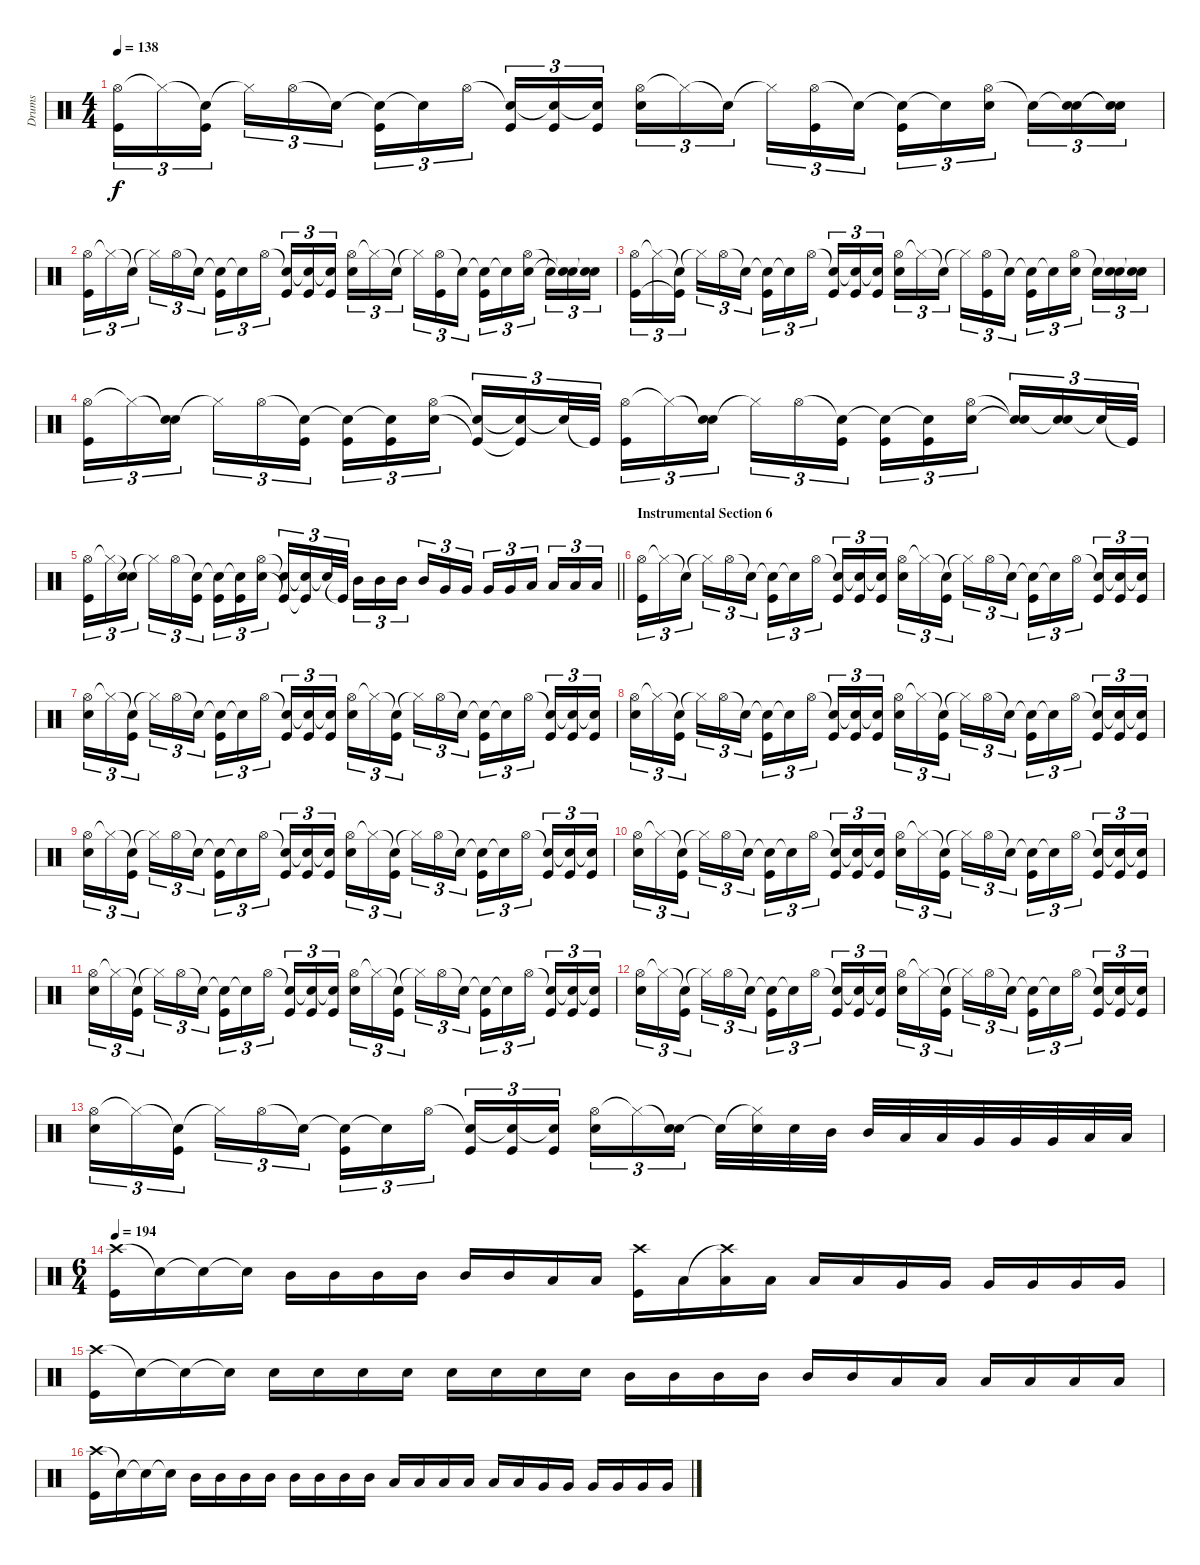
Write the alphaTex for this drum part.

\track ("Drums" "Drums") {instrument percussion}
\staff {score}
\articulation defaults
\ts (4 4)
\tempo 138
\clef neutral
\ks c
("Hi-Hat (open)" "Kick (hit)").16{tu (3 2) dy f} "Hi-Hat (closed)"{t}.16{tu (3 2)} ("Snare (hit)"{t} "Kick (hit)").16{tu (3 2)} "Hi-Hat (closed)"{t}.16{tu (3 2)} "Hi-Hat (open)".16{tu (3 2)} "Snare (hit)"{t}.16{tu (3 2)} ("Snare (hit)"{t} "Kick (hit)").16{tu (3 2)} "Snare (hit)"{t}.16{tu (3 2)} "Hi-Hat (open)".16{tu (3 2)} ("Snare (hit)"{t} "Kick (hit)").16{tu (3 2)} ("Snare (hit)"{t} "Kick (hit)").16{tu (3 2)} ("Snare (hit)"{t} "Kick (hit)").16{tu (3 2)} ("Hi-Hat (open)" "Electric Snare (hit)").16{tu (3 2)} "Hi-Hat (closed)"{t}.16{tu (3 2)} "Snare (hit)"{t}.16{tu (3 2)} "Hi-Hat (closed)"{t}.16{tu (3 2)} ("Hi-Hat (open)" "Kick (hit)").16{tu (3 2)} "Snare (hit)"{t}.16{tu (3 2)} ("Snare (hit)"{t} "Kick (hit)").16{tu (3 2)} "Snare (hit)"{t}.16{tu (3 2)} ("Hi-Hat (open)" "Electric Snare (hit)").16{tu (3 2)} "Snare (hit)"{t}.16{tu (3 2)} ("Snare (hit)"{t} "Electric Snare (hit)").16{tu (3 2)} ("Snare (hit)"{t} "Electric Snare (hit)"{t}).16{tu (3 2)} |
("Hi-Hat (open)" "Kick (hit)").16{tu (3 2)} "Hi-Hat (closed)"{t}.16{tu (3 2)} "Snare (hit)"{t}.16{tu (3 2)} "Hi-Hat (closed)"{t}.16{tu (3 2)} "Hi-Hat (open)".16{tu (3 2)} "Snare (hit)"{t}.16{tu (3 2)} ("Snare (hit)"{t} "Kick (hit)").16{tu (3 2)} "Snare (hit)"{t}.16{tu (3 2)} "Hi-Hat (open)".16{tu (3 2)} ("Snare (hit)"{t} "Kick (hit)").16{tu (3 2)} ("Snare (hit)"{t} "Kick (hit)").16{tu (3 2)} ("Snare (hit)"{t} "Kick (hit)").16{tu (3 2)} ("Hi-Hat (open)" "Electric Snare (hit)").16{tu (3 2)} "Hi-Hat (closed)"{t}.16{tu (3 2)} "Snare (hit)"{t}.16{tu (3 2)} "Hi-Hat (closed)"{t}.16{tu (3 2)} ("Hi-Hat (open)" "Kick (hit)").16{tu (3 2)} "Snare (hit)"{t}.16{tu (3 2)} ("Snare (hit)"{t} "Kick (hit)").16{tu (3 2)} "Snare (hit)"{t}.16{tu (3 2)} ("Hi-Hat (open)" "Electric Snare (hit)").16{tu (3 2)} "Snare (hit)"{t}.16{tu (3 2)} ("Snare (hit)"{t} "Electric Snare (hit)"{t}).16{tu (3 2)} ("Snare (hit)"{t} "Electric Snare (hit)"{t}).16{tu (3 2)} |
("Hi-Hat (open)" "Kick (hit)").16{tu (3 2)} "Hi-Hat (closed)"{t}.16{tu (3 2)} ("Snare (hit)"{t} "Kick (hit)"{t}).16{tu (3 2)} "Hi-Hat (closed)"{t}.16{tu (3 2)} "Hi-Hat (open)".16{tu (3 2)} "Snare (hit)"{t}.16{tu (3 2)} ("Snare (hit)"{t} "Kick (hit)").16{tu (3 2)} "Snare (hit)"{t}.16{tu (3 2)} "Hi-Hat (open)".16{tu (3 2)} ("Snare (hit)"{t} "Kick (hit)").16{tu (3 2)} ("Snare (hit)"{t} "Kick (hit)").16{tu (3 2)} ("Snare (hit)"{t} "Kick (hit)").16{tu (3 2)} ("Hi-Hat (open)" "Electric Snare (hit)").16{tu (3 2)} "Hi-Hat (closed)"{t}.16{tu (3 2)} "Snare (hit)"{t}.16{tu (3 2)} "Hi-Hat (closed)"{t}.16{tu (3 2)} ("Hi-Hat (open)" "Kick (hit)").16{tu (3 2)} "Snare (hit)"{t}.16{tu (3 2)} ("Snare (hit)"{t} "Kick (hit)").16{tu (3 2)} "Snare (hit)"{t}.16{tu (3 2)} ("Hi-Hat (open)" "Electric Snare (hit)").16{tu (3 2)} "Snare (hit)"{t}.16{tu (3 2)} ("Snare (hit)"{t} "Electric Snare (hit)").16{tu (3 2)} ("Snare (hit)"{t} "Electric Snare (hit)"{t}).16{tu (3 2)} |
("Hi-Hat (open)" "Kick (hit)").16{tu (3 2)} "Hi-Hat (closed)"{t}.16{tu (3 2)} ("Snare (hit)"{t} "Electric Snare (hit)").16{tu (3 2)} "Hi-Hat (closed)"{t}.16{tu (3 2)} "Hi-Hat (open)".16{tu (3 2)} ("Snare (hit)"{t} "Kick (hit)").16{tu (3 2)} ("Snare (hit)"{t} "Kick (hit)").16{tu (3 2)} ("Snare (hit)"{t} "Kick (hit)").16{tu (3 2)} ("Hi-Hat (open)" "Electric Snare (hit)").16{tu (3 2)} ("Snare (hit)"{t} "Kick (hit)"{t}).16{tu (3 2)} ("Snare (hit)"{t} "Kick (hit)"{t}).16{tu (3 2)} "Snare (hit)"{t}.32{tu (3 2)} "Kick (hit)"{t}.32{tu (3 2)} ("Hi-Hat (open)" "Kick (hit)").16{tu (3 2)} "Hi-Hat (closed)"{t}.16{tu (3 2)} ("Snare (hit)"{t} "Electric Snare (hit)").16{tu (3 2)} "Hi-Hat (closed)"{t}.16{tu (3 2)} "Hi-Hat (open)".16{tu (3 2)} ("Snare (hit)"{t} "Kick (hit)").16{tu (3 2)} ("Snare (hit)"{t} "Kick (hit)").16{tu (3 2)} ("Snare (hit)"{t} "Kick (hit)").16{tu (3 2)} ("Hi-Hat (open)" "Electric Snare (hit)").16{tu (3 2)} ("Snare (hit)"{t} "Electric Snare (hit)"{t}).16{tu (3 2)} ("Snare (hit)"{t} "Electric Snare (hit)").16{tu (3 2)} "Snare (hit)"{t}.32{tu (3 2)} "Kick (hit)"{t}.32{tu (3 2)} |
\barLineRight lightlight
("Hi-Hat (open)" "Kick (hit)").16{tu (3 2)} "Hi-Hat (closed)"{t}.16{tu (3 2)} ("Snare (hit)"{t} "Electric Snare (hit)").16{tu (3 2)} "Hi-Hat (closed)"{t}.16{tu (3 2)} "Hi-Hat (open)".16{tu (3 2)} ("Snare (hit)"{t} "Kick (hit)").16{tu (3 2)} ("Snare (hit)"{t} "Kick (hit)").16{tu (3 2)} ("Snare (hit)"{t} "Kick (hit)").16{tu (3 2)} ("Hi-Hat (open)" "Electric Snare (hit)").16{tu (3 2)} ("Snare (hit)"{t} "Kick (hit)"{t}).16{tu (3 2)} ("Snare (hit)"{t} "Kick (hit)"{t}).16{tu (3 2)} "Snare (hit)"{t}.32{tu (3 2)} "Kick (hit)"{t}.32{tu (3 2)} "Mid Tom (hit)".16{tu (3 2)} "Mid Tom (hit)".16{tu (3 2)} "Mid Tom (hit)".16{tu (3 2)} "Mid Tom (hit)".16{tu (3 2)} "Very Low Tom (hit)".16{tu (3 2)} "Very Low Tom (hit)".16{tu (3 2)} "Very Low Tom (hit)".16{tu (3 2)} "Very Low Tom (hit)".16{tu (3 2)} "Low Floor Tom (hit)".16{tu (3 2)} "Low Floor Tom (hit)".16{tu (3 2)} "Low Floor Tom (hit)".16{tu (3 2)} "Low Floor Tom (hit)".16{tu (3 2)} |
\section ("" "Instrumental Section 6")
("Hi-Hat (open)" "Kick (hit)").16{tu (3 2)} "Hi-Hat (closed)"{t}.16{tu (3 2)} "Snare (hit)"{t}.16{tu (3 2)} "Hi-Hat (closed)"{t}.16{tu (3 2)} "Hi-Hat (open)".16{tu (3 2)} "Snare (hit)"{t}.16{tu (3 2)} ("Snare (hit)"{t} "Kick (hit)").16{tu (3 2)} "Snare (hit)"{t}.16{tu (3 2)} "Hi-Hat (open)".16{tu (3 2)} ("Snare (hit)"{t} "Kick (hit)").16{tu (3 2)} ("Snare (hit)"{t} "Kick (hit)").16{tu (3 2)} ("Snare (hit)"{t} "Kick (hit)").16{tu (3 2)} ("Hi-Hat (open)" "Electric Snare (hit)").16{tu (3 2)} "Hi-Hat (closed)"{t}.16{tu (3 2)} ("Snare (hit)"{t} "Kick (hit)").16{tu (3 2)} "Hi-Hat (closed)"{t}.16{tu (3 2)} "Hi-Hat (open)".16{tu (3 2)} "Snare (hit)"{t}.16{tu (3 2)} ("Snare (hit)"{t} "Kick (hit)").16{tu (3 2)} "Snare (hit)"{t}.16{tu (3 2)} "Hi-Hat (open)".16{tu (3 2)} ("Snare (hit)"{t} "Kick (hit)").16{tu (3 2)} ("Snare (hit)"{t} "Kick (hit)").16{tu (3 2)} ("Snare (hit)"{t} "Kick (hit)").16{tu (3 2)} |
("Hi-Hat (open)" "Electric Snare (hit)").16{tu (3 2)} "Hi-Hat (closed)"{t}.16{tu (3 2)} ("Snare (hit)"{t} "Kick (hit)").16{tu (3 2)} "Hi-Hat (closed)"{t}.16{tu (3 2)} "Hi-Hat (open)".16{tu (3 2)} "Snare (hit)"{t}.16{tu (3 2)} ("Snare (hit)"{t} "Kick (hit)").16{tu (3 2)} "Snare (hit)"{t}.16{tu (3 2)} "Hi-Hat (open)".16{tu (3 2)} ("Snare (hit)"{t} "Kick (hit)").16{tu (3 2)} ("Snare (hit)"{t} "Kick (hit)").16{tu (3 2)} ("Snare (hit)"{t} "Kick (hit)").16{tu (3 2)} ("Hi-Hat (open)" "Electric Snare (hit)").16{tu (3 2)} "Hi-Hat (closed)"{t}.16{tu (3 2)} ("Snare (hit)"{t} "Kick (hit)").16{tu (3 2)} "Hi-Hat (closed)"{t}.16{tu (3 2)} "Hi-Hat (open)".16{tu (3 2)} "Snare (hit)"{t}.16{tu (3 2)} ("Snare (hit)"{t} "Kick (hit)").16{tu (3 2)} "Snare (hit)"{t}.16{tu (3 2)} "Hi-Hat (open)".16{tu (3 2)} ("Snare (hit)"{t} "Kick (hit)").16{tu (3 2)} ("Snare (hit)"{t} "Kick (hit)").16{tu (3 2)} ("Snare (hit)"{t} "Kick (hit)").16{tu (3 2)} |
("Hi-Hat (open)" "Electric Snare (hit)").16{tu (3 2)} "Hi-Hat (closed)"{t}.16{tu (3 2)} ("Snare (hit)"{t} "Kick (hit)").16{tu (3 2)} "Hi-Hat (closed)"{t}.16{tu (3 2)} "Hi-Hat (open)".16{tu (3 2)} "Snare (hit)"{t}.16{tu (3 2)} ("Snare (hit)"{t} "Kick (hit)").16{tu (3 2)} "Snare (hit)"{t}.16{tu (3 2)} "Hi-Hat (open)".16{tu (3 2)} ("Snare (hit)"{t} "Kick (hit)").16{tu (3 2)} ("Snare (hit)"{t} "Kick (hit)").16{tu (3 2)} ("Snare (hit)"{t} "Kick (hit)").16{tu (3 2)} ("Hi-Hat (open)" "Electric Snare (hit)").16{tu (3 2)} "Hi-Hat (closed)"{t}.16{tu (3 2)} ("Snare (hit)"{t} "Kick (hit)").16{tu (3 2)} "Hi-Hat (closed)"{t}.16{tu (3 2)} "Hi-Hat (open)".16{tu (3 2)} "Snare (hit)"{t}.16{tu (3 2)} ("Snare (hit)"{t} "Kick (hit)").16{tu (3 2)} "Snare (hit)"{t}.16{tu (3 2)} "Hi-Hat (open)".16{tu (3 2)} ("Snare (hit)"{t} "Kick (hit)").16{tu (3 2)} ("Snare (hit)"{t} "Kick (hit)").16{tu (3 2)} ("Snare (hit)"{t} "Kick (hit)").16{tu (3 2)} |
("Hi-Hat (open)" "Electric Snare (hit)").16{tu (3 2)} "Hi-Hat (closed)"{t}.16{tu (3 2)} ("Snare (hit)"{t} "Kick (hit)").16{tu (3 2)} "Hi-Hat (closed)"{t}.16{tu (3 2)} "Hi-Hat (open)".16{tu (3 2)} "Snare (hit)"{t}.16{tu (3 2)} ("Snare (hit)"{t} "Kick (hit)").16{tu (3 2)} "Snare (hit)"{t}.16{tu (3 2)} "Hi-Hat (open)".16{tu (3 2)} ("Snare (hit)"{t} "Kick (hit)").16{tu (3 2)} ("Snare (hit)"{t} "Kick (hit)").16{tu (3 2)} ("Snare (hit)"{t} "Kick (hit)").16{tu (3 2)} ("Hi-Hat (open)" "Electric Snare (hit)").16{tu (3 2)} "Hi-Hat (closed)"{t}.16{tu (3 2)} ("Snare (hit)"{t} "Kick (hit)").16{tu (3 2)} "Hi-Hat (closed)"{t}.16{tu (3 2)} "Hi-Hat (open)".16{tu (3 2)} "Snare (hit)"{t}.16{tu (3 2)} ("Snare (hit)"{t} "Kick (hit)").16{tu (3 2)} "Snare (hit)"{t}.16{tu (3 2)} "Hi-Hat (open)".16{tu (3 2)} ("Snare (hit)"{t} "Kick (hit)").16{tu (3 2)} ("Snare (hit)"{t} "Kick (hit)").16{tu (3 2)} ("Snare (hit)"{t} "Kick (hit)").16{tu (3 2)} |
("Hi-Hat (open)" "Electric Snare (hit)").16{tu (3 2)} "Hi-Hat (closed)"{t}.16{tu (3 2)} ("Snare (hit)"{t} "Kick (hit)").16{tu (3 2)} "Hi-Hat (closed)"{t}.16{tu (3 2)} "Hi-Hat (open)".16{tu (3 2)} "Snare (hit)"{t}.16{tu (3 2)} ("Snare (hit)"{t} "Kick (hit)").16{tu (3 2)} "Snare (hit)"{t}.16{tu (3 2)} "Hi-Hat (open)".16{tu (3 2)} ("Snare (hit)"{t} "Kick (hit)").16{tu (3 2)} ("Snare (hit)"{t} "Kick (hit)").16{tu (3 2)} ("Snare (hit)"{t} "Kick (hit)").16{tu (3 2)} ("Hi-Hat (open)" "Electric Snare (hit)").16{tu (3 2)} "Hi-Hat (closed)"{t}.16{tu (3 2)} ("Snare (hit)"{t} "Kick (hit)").16{tu (3 2)} "Hi-Hat (closed)"{t}.16{tu (3 2)} "Hi-Hat (open)".16{tu (3 2)} "Snare (hit)"{t}.16{tu (3 2)} ("Snare (hit)"{t} "Kick (hit)").16{tu (3 2)} "Snare (hit)"{t}.16{tu (3 2)} "Hi-Hat (open)".16{tu (3 2)} ("Snare (hit)"{t} "Kick (hit)").16{tu (3 2)} ("Snare (hit)"{t} "Kick (hit)").16{tu (3 2)} ("Snare (hit)"{t} "Kick (hit)").16{tu (3 2)} |
("Hi-Hat (open)" "Electric Snare (hit)").16{tu (3 2)} "Hi-Hat (closed)"{t}.16{tu (3 2)} ("Snare (hit)"{t} "Kick (hit)").16{tu (3 2)} "Hi-Hat (closed)"{t}.16{tu (3 2)} "Hi-Hat (open)".16{tu (3 2)} "Snare (hit)"{t}.16{tu (3 2)} ("Snare (hit)"{t} "Kick (hit)").16{tu (3 2)} "Snare (hit)"{t}.16{tu (3 2)} "Hi-Hat (open)".16{tu (3 2)} ("Snare (hit)"{t} "Kick (hit)").16{tu (3 2)} ("Snare (hit)"{t} "Kick (hit)").16{tu (3 2)} ("Snare (hit)"{t} "Kick (hit)").16{tu (3 2)} ("Hi-Hat (open)" "Electric Snare (hit)").16{tu (3 2)} "Hi-Hat (closed)"{t}.16{tu (3 2)} ("Snare (hit)"{t} "Kick (hit)").16{tu (3 2)} "Hi-Hat (closed)"{t}.16{tu (3 2)} "Hi-Hat (open)".16{tu (3 2)} "Snare (hit)"{t}.16{tu (3 2)} ("Snare (hit)"{t} "Kick (hit)").16{tu (3 2)} "Snare (hit)"{t}.16{tu (3 2)} "Hi-Hat (open)".16{tu (3 2)} ("Snare (hit)"{t} "Kick (hit)").16{tu (3 2)} ("Snare (hit)"{t} "Kick (hit)").16{tu (3 2)} ("Snare (hit)"{t} "Kick (hit)").16{tu (3 2)} |
("Hi-Hat (open)" "Electric Snare (hit)").16{tu (3 2)} "Hi-Hat (closed)"{t}.16{tu (3 2)} ("Snare (hit)"{t} "Kick (hit)").16{tu (3 2)} "Hi-Hat (closed)"{t}.16{tu (3 2)} "Hi-Hat (open)".16{tu (3 2)} "Snare (hit)"{t}.16{tu (3 2)} ("Snare (hit)"{t} "Kick (hit)").16{tu (3 2)} "Snare (hit)"{t}.16{tu (3 2)} "Hi-Hat (open)".16{tu (3 2)} ("Snare (hit)"{t} "Kick (hit)").16{tu (3 2)} ("Snare (hit)"{t} "Kick (hit)").16{tu (3 2)} ("Snare (hit)"{t} "Kick (hit)").16{tu (3 2)} ("Hi-Hat (open)" "Electric Snare (hit)").16{tu (3 2)} "Hi-Hat (closed)"{t}.16{tu (3 2)} ("Snare (hit)"{t} "Kick (hit)").16{tu (3 2)} "Hi-Hat (closed)"{t}.16{tu (3 2)} "Hi-Hat (open)".16{tu (3 2)} "Snare (hit)"{t}.16{tu (3 2)} ("Snare (hit)"{t} "Kick (hit)").16{tu (3 2)} "Snare (hit)"{t}.16{tu (3 2)} "Hi-Hat (open)".16{tu (3 2)} ("Snare (hit)"{t} "Kick (hit)").16{tu (3 2)} ("Snare (hit)"{t} "Kick (hit)").16{tu (3 2)} ("Snare (hit)"{t} "Kick (hit)").16{tu (3 2)} |
("Hi-Hat (open)" "Electric Snare (hit)").16{tu (3 2)} "Hi-Hat (closed)"{t}.16{tu (3 2)} ("Snare (hit)"{t} "Kick (hit)").16{tu (3 2)} "Hi-Hat (closed)"{t}.16{tu (3 2)} "Hi-Hat (open)".16{tu (3 2)} "Snare (hit)"{t}.16{tu (3 2)} ("Snare (hit)"{t} "Kick (hit)").16{tu (3 2)} "Snare (hit)"{t}.16{tu (3 2)} "Hi-Hat (open)".16{tu (3 2)} ("Snare (hit)"{t} "Kick (hit)").16{tu (3 2)} ("Snare (hit)"{t} "Kick (hit)").16{tu (3 2)} ("Snare (hit)"{t} "Kick (hit)").16{tu (3 2)} ("Hi-Hat (open)" "Electric Snare (hit)").16{tu (3 2)} "Hi-Hat (closed)"{t}.16{tu (3 2)} ("Snare (hit)"{t} "Electric Snare (hit)").16{tu (3 2)} "Snare (hit)"{t}.32 ("Hi-Hat (closed)"{t} "Electric Snare (hit)").32 "Electric Snare (hit)".32 "Mid Tom (hit)".32 "Mid Tom (hit)".32 "Low Tom (hit)".32 "Low Tom (hit)".32 "Very Low Tom (hit)".32 "Very Low Tom (hit)".32 "Very Low Tom (hit)".32 "Low Floor Tom (hit)".32 "Low Floor Tom (hit)".32 |
\ts (6 4)
\tempo 194
("Crash high (hit)" "Kick (hit)").16 "Snare (hit)"{t}.16 "Snare (hit)"{t}.16 "Snare (hit)"{t}.16 "Mid Tom (hit)".16 "Mid Tom (hit)".16 "Mid Tom (hit)".16 "Mid Tom (hit)".16 "Mid Tom (hit)".16 "Mid Tom (hit)".16 "Low Tom (hit)".16 "Low Tom (hit)".16 ("Crash high (hit)" "Kick (hit)").16 "Low Tom (hit)".16 ("Crash high (hit)"{t} "Low Tom (hit)").16 "Low Tom (hit)".16 "Low Tom (hit)".16 "Low Tom (hit)".16 "Very Low Tom (hit)".16 "Very Low Tom (hit)".16 "Very Low Tom (hit)".16 "Very Low Tom (hit)".16 "Very Low Tom (hit)".16 "Very Low Tom (hit)".16 |
("Crash high (hit)" "Kick (hit)").16 "Snare (hit)"{t}.16 "Snare (hit)"{t}.16 "Snare (hit)"{t}.16 "Electric Snare (hit)".16 "Electric Snare (hit)".16 "Electric Snare (hit)".16 "Electric Snare (hit)".16 "Electric Snare (hit)".16 "Electric Snare (hit)".16 "Electric Snare (hit)".16 "Electric Snare (hit)".16 "Mid Tom (hit)".16 "Mid Tom (hit)".16 "Mid Tom (hit)".16 "Mid Tom (hit)".16 "Mid Tom (hit)".16 "Mid Tom (hit)".16 "Low Tom (hit)".16 "Low Tom (hit)".16 "Low Tom (hit)".16 "Low Tom (hit)".16 "Low Tom (hit)".16 "Low Tom (hit)".16 |
("Crash high (hit)" "Kick (hit)").16 "Snare (hit)"{t}.16 "Snare (hit)"{t}.16 "Snare (hit)"{t}.16 "Mid Tom (hit)".16 "Mid Tom (hit)".16 "Mid Tom (hit)".16 "Mid Tom (hit)".16 "Mid Tom (hit)".16 "Mid Tom (hit)".16 "Mid Tom (hit)".16 "Mid Tom (hit)".16 "Low Tom (hit)".16 "Low Tom (hit)".16 "Low Tom (hit)".16 "Low Tom (hit)".16 "Low Tom (hit)".16 "Low Tom (hit)".16 "Very Low Tom (hit)".16 "Very Low Tom (hit)".16 "Very Low Tom (hit)".16 "Very Low Tom (hit)".16 "Very Low Tom (hit)".16 "Very Low Tom (hit)".16
